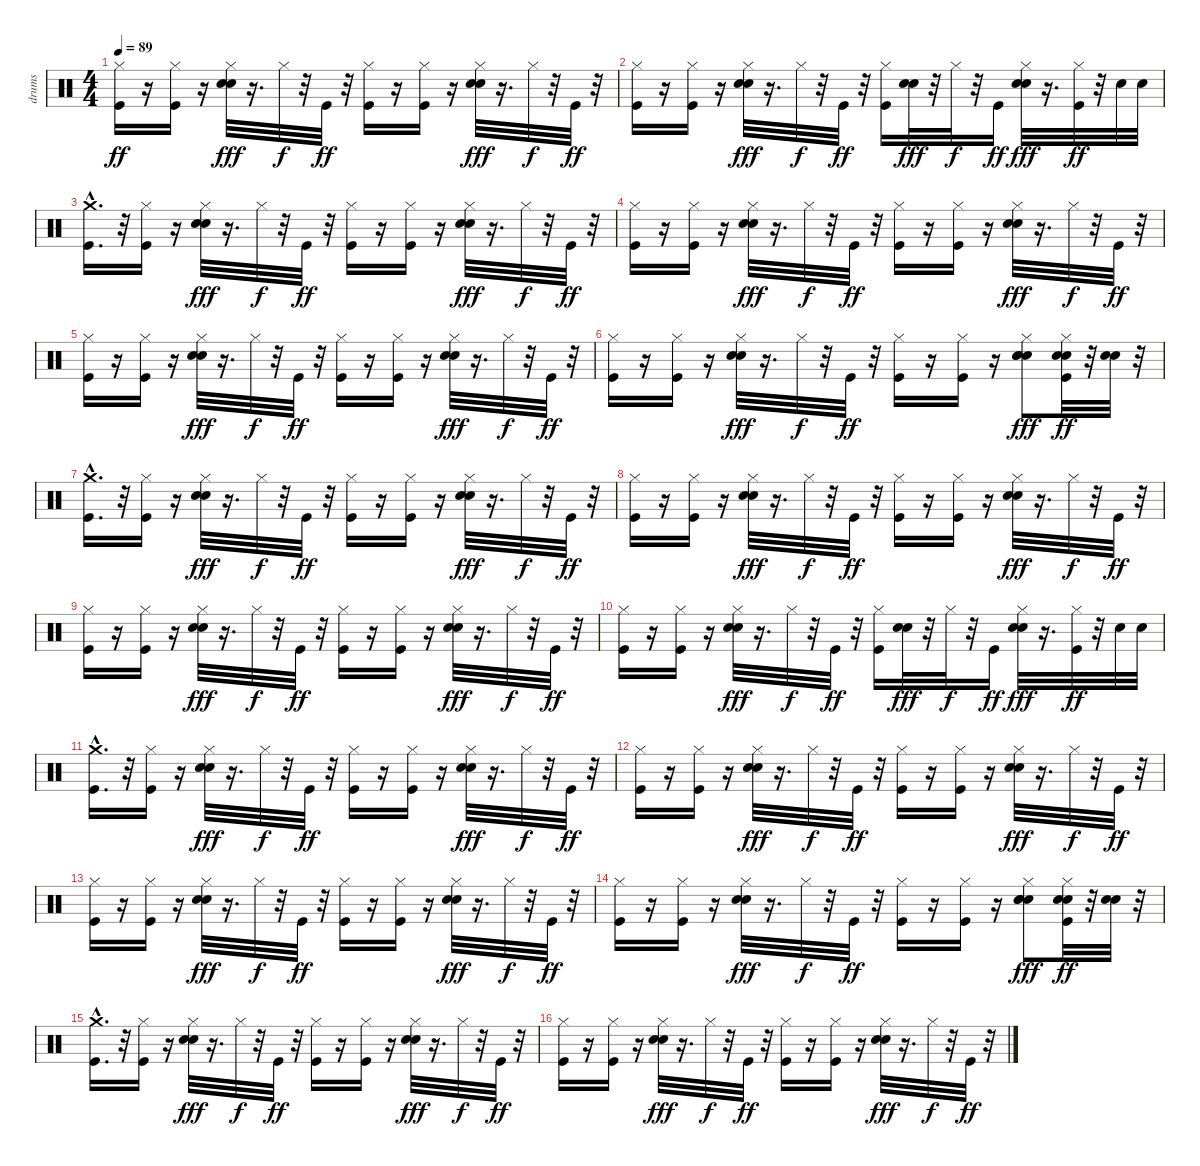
\track ("drums" "drums") {instrument percussion}
\staff {score}
\articulation defaults
\ts (4 4)
\tempo 89
\clef neutral
\ks c
("Kick (hit)" "Hi-Hat (closed)").16{dy ff} r.16 ("Hi-Hat (closed)" "Kick (hit)").16 r.16 ("Hi-Hat (closed)" "Electric Snare (hit)" "Hand Clap (hit)").32{dy fff} r.16{d} "Hi-Hat (closed)".32{dy f} r.32 "Kick (hit)".32{dy ff} r.32 ("Hi-Hat (closed)" "Kick (hit)").16 r.16 ("Hi-Hat (closed)" "Kick (hit)").16 r.16 ("Hi-Hat (closed)" "Electric Snare (hit)" "Hand Clap (hit)").32{dy fff} r.16{d} "Hi-Hat (closed)".32{dy f} r.32 "Kick (hit)".32{dy ff} r.32 |
("Kick (hit)" "Hi-Hat (closed)").16 r.16 ("Hi-Hat (closed)" "Kick (hit)").16 r.16 ("Hi-Hat (closed)" "Electric Snare (hit)" "Hand Clap (hit)").32{dy fff} r.16{d} "Hi-Hat (closed)".32{dy f} r.32 "Kick (hit)".32{dy ff} r.32 ("Hi-Hat (closed)" "Kick (hit)").16 ("Electric Snare (hit)" "Hand Clap (hit)").32{dy fff} r.32 "Hi-Hat (closed)".32{dy f} r.32 "Kick (hit)".16{dy ff} ("Hi-Hat (closed)" "Electric Snare (hit)" "Hand Clap (hit)").32{dy fff} r.16{d} ("Hi-Hat (closed)" "Kick (hit)").32{dy ff} r.32 "Hand Clap (hit)".32 "Hand Clap (hit)".32 |
("Crash medium (hit)"{hac} "Kick (hit)").16{d} r.32 ("Hi-Hat (closed)" "Kick (hit)").16 r.16 ("Hi-Hat (closed)" "Electric Snare (hit)" "Hand Clap (hit)").32{dy fff} r.16{d} "Hi-Hat (closed)".32{dy f} r.32 "Kick (hit)".32{dy ff} r.32 ("Hi-Hat (closed)" "Kick (hit)").16 r.16 ("Hi-Hat (closed)" "Kick (hit)").16 r.16 ("Hi-Hat (closed)" "Electric Snare (hit)" "Hand Clap (hit)").32{dy fff} r.16{d} "Hi-Hat (closed)".32{dy f} r.32 "Kick (hit)".32{dy ff} r.32 |
("Kick (hit)" "Hi-Hat (closed)").16 r.16 ("Hi-Hat (closed)" "Kick (hit)").16 r.16 ("Hi-Hat (closed)" "Electric Snare (hit)" "Hand Clap (hit)").32{dy fff} r.16{d} "Hi-Hat (closed)".32{dy f} r.32 "Kick (hit)".32{dy ff} r.32 ("Hi-Hat (closed)" "Kick (hit)").16 r.16 ("Hi-Hat (closed)" "Kick (hit)").16 r.16 ("Hi-Hat (closed)" "Electric Snare (hit)" "Hand Clap (hit)").32{dy fff} r.16{d} "Hi-Hat (closed)".32{dy f} r.32 "Kick (hit)".32{dy ff} r.32 |
("Kick (hit)" "Hi-Hat (closed)").16 r.16 ("Hi-Hat (closed)" "Kick (hit)").16 r.16 ("Hi-Hat (closed)" "Electric Snare (hit)" "Hand Clap (hit)").32{dy fff} r.16{d} "Hi-Hat (closed)".32{dy f} r.32 "Kick (hit)".32{dy ff} r.32 ("Hi-Hat (closed)" "Kick (hit)").16 r.16 ("Hi-Hat (closed)" "Kick (hit)").16 r.16 ("Hi-Hat (closed)" "Electric Snare (hit)" "Hand Clap (hit)").32{dy fff} r.16{d} "Hi-Hat (closed)".32{dy f} r.32 "Kick (hit)".32{dy ff} r.32 |
("Kick (hit)" "Hi-Hat (closed)").16 r.16 ("Hi-Hat (closed)" "Kick (hit)").16 r.16 ("Hi-Hat (closed)" "Electric Snare (hit)" "Hand Clap (hit)").32{dy fff} r.16{d} "Hi-Hat (closed)".32{dy f} r.32 "Kick (hit)".32{dy ff} r.32 ("Hi-Hat (closed)" "Kick (hit)").16 r.16 ("Hi-Hat (closed)" "Kick (hit)").16 r.16 ("Electric Snare (hit)" "Hi-Hat (closed)" "Hand Clap (hit)" "Electric Snare (hit)").8{dy fff} ("Hi-Hat (closed)" "Kick (hit)" "Hand Clap (hit)" "Electric Snare (hit)").32{dy ff} r.32 ("Hand Clap (hit)" "Electric Snare (hit)").32 r.32 |
("Crash medium (hit)"{hac} "Kick (hit)").16{d} r.32 ("Hi-Hat (closed)" "Kick (hit)").16 r.16 ("Hi-Hat (closed)" "Electric Snare (hit)" "Hand Clap (hit)").32{dy fff} r.16{d} "Hi-Hat (closed)".32{dy f} r.32 "Kick (hit)".32{dy ff} r.32 ("Hi-Hat (closed)" "Kick (hit)").16 r.16 ("Hi-Hat (closed)" "Kick (hit)").16 r.16 ("Hi-Hat (closed)" "Electric Snare (hit)" "Hand Clap (hit)").32{dy fff} r.16{d} "Hi-Hat (closed)".32{dy f} r.32 "Kick (hit)".32{dy ff} r.32 |
("Kick (hit)" "Hi-Hat (closed)").16 r.16 ("Hi-Hat (closed)" "Kick (hit)").16 r.16 ("Hi-Hat (closed)" "Electric Snare (hit)" "Hand Clap (hit)").32{dy fff} r.16{d} "Hi-Hat (closed)".32{dy f} r.32 "Kick (hit)".32{dy ff} r.32 ("Hi-Hat (closed)" "Kick (hit)").16 r.16 ("Hi-Hat (closed)" "Kick (hit)").16 r.16 ("Hi-Hat (closed)" "Electric Snare (hit)" "Hand Clap (hit)").32{dy fff} r.16{d} "Hi-Hat (closed)".32{dy f} r.32 "Kick (hit)".32{dy ff} r.32 |
("Kick (hit)" "Hi-Hat (closed)").16 r.16 ("Hi-Hat (closed)" "Kick (hit)").16 r.16 ("Hi-Hat (closed)" "Electric Snare (hit)" "Hand Clap (hit)").32{dy fff} r.16{d} "Hi-Hat (closed)".32{dy f} r.32 "Kick (hit)".32{dy ff} r.32 ("Hi-Hat (closed)" "Kick (hit)").16 r.16 ("Hi-Hat (closed)" "Kick (hit)").16 r.16 ("Hi-Hat (closed)" "Electric Snare (hit)" "Hand Clap (hit)").32{dy fff} r.16{d} "Hi-Hat (closed)".32{dy f} r.32 "Kick (hit)".32{dy ff} r.32 |
("Kick (hit)" "Hi-Hat (closed)").16 r.16 ("Hi-Hat (closed)" "Kick (hit)").16 r.16 ("Hi-Hat (closed)" "Electric Snare (hit)" "Hand Clap (hit)").32{dy fff} r.16{d} "Hi-Hat (closed)".32{dy f} r.32 "Kick (hit)".32{dy ff} r.32 ("Hi-Hat (closed)" "Kick (hit)").16 ("Electric Snare (hit)" "Hand Clap (hit)").32{dy fff} r.32 "Hi-Hat (closed)".32{dy f} r.32 "Kick (hit)".16{dy ff} ("Hi-Hat (closed)" "Electric Snare (hit)" "Hand Clap (hit)").32{dy fff} r.16{d} ("Hi-Hat (closed)" "Kick (hit)").32{dy ff} r.32 "Hand Clap (hit)".32 "Hand Clap (hit)".32 |
("Crash medium (hit)"{hac} "Kick (hit)").16{d} r.32 ("Hi-Hat (closed)" "Kick (hit)").16 r.16 ("Hi-Hat (closed)" "Electric Snare (hit)" "Hand Clap (hit)").32{dy fff} r.16{d} "Hi-Hat (closed)".32{dy f} r.32 "Kick (hit)".32{dy ff} r.32 ("Hi-Hat (closed)" "Kick (hit)").16 r.16 ("Hi-Hat (closed)" "Kick (hit)").16 r.16 ("Hi-Hat (closed)" "Electric Snare (hit)" "Hand Clap (hit)").32{dy fff} r.16{d} "Hi-Hat (closed)".32{dy f} r.32 "Kick (hit)".32{dy ff} r.32 |
("Kick (hit)" "Hi-Hat (closed)").16 r.16 ("Hi-Hat (closed)" "Kick (hit)").16 r.16 ("Hi-Hat (closed)" "Electric Snare (hit)" "Hand Clap (hit)").32{dy fff} r.16{d} "Hi-Hat (closed)".32{dy f} r.32 "Kick (hit)".32{dy ff} r.32 ("Hi-Hat (closed)" "Kick (hit)").16 r.16 ("Hi-Hat (closed)" "Kick (hit)").16 r.16 ("Hi-Hat (closed)" "Electric Snare (hit)" "Hand Clap (hit)").32{dy fff} r.16{d} "Hi-Hat (closed)".32{dy f} r.32 "Kick (hit)".32{dy ff} r.32 |
("Kick (hit)" "Hi-Hat (closed)").16 r.16 ("Hi-Hat (closed)" "Kick (hit)").16 r.16 ("Hi-Hat (closed)" "Electric Snare (hit)" "Hand Clap (hit)").32{dy fff} r.16{d} "Hi-Hat (closed)".32{dy f} r.32 "Kick (hit)".32{dy ff} r.32 ("Hi-Hat (closed)" "Kick (hit)").16 r.16 ("Hi-Hat (closed)" "Kick (hit)").16 r.16 ("Hi-Hat (closed)" "Electric Snare (hit)" "Hand Clap (hit)").32{dy fff} r.16{d} "Hi-Hat (closed)".32{dy f} r.32 "Kick (hit)".32{dy ff} r.32 |
("Kick (hit)" "Hi-Hat (closed)").16 r.16 ("Hi-Hat (closed)" "Kick (hit)").16 r.16 ("Hi-Hat (closed)" "Electric Snare (hit)" "Hand Clap (hit)").32{dy fff} r.16{d} "Hi-Hat (closed)".32{dy f} r.32 "Kick (hit)".32{dy ff} r.32 ("Hi-Hat (closed)" "Kick (hit)").16 r.16 ("Hi-Hat (closed)" "Kick (hit)").16 r.16 ("Electric Snare (hit)" "Hi-Hat (closed)" "Hand Clap (hit)" "Electric Snare (hit)").8{dy fff} ("Hi-Hat (closed)" "Kick (hit)" "Hand Clap (hit)" "Electric Snare (hit)").32{dy ff} r.32 ("Hand Clap (hit)" "Electric Snare (hit)").32 r.32 |
("Crash medium (hit)"{hac} "Kick (hit)").16{d} r.32 ("Hi-Hat (closed)" "Kick (hit)").16 r.16 ("Hi-Hat (closed)" "Electric Snare (hit)" "Hand Clap (hit)").32{dy fff} r.16{d} "Hi-Hat (closed)".32{dy f} r.32 "Kick (hit)".32{dy ff} r.32 ("Hi-Hat (closed)" "Kick (hit)").16 r.16 ("Hi-Hat (closed)" "Kick (hit)").16 r.16 ("Hi-Hat (closed)" "Electric Snare (hit)" "Hand Clap (hit)").32{dy fff} r.16{d} "Hi-Hat (closed)".32{dy f} r.32 "Kick (hit)".32{dy ff} r.32 |
("Kick (hit)" "Hi-Hat (closed)").16 r.16 ("Hi-Hat (closed)" "Kick (hit)").16 r.16 ("Hi-Hat (closed)" "Electric Snare (hit)" "Hand Clap (hit)").32{dy fff} r.16{d} "Hi-Hat (closed)".32{dy f} r.32 "Kick (hit)".32{dy ff} r.32 ("Hi-Hat (closed)" "Kick (hit)").16 r.16 ("Hi-Hat (closed)" "Kick (hit)").16 r.16 ("Hi-Hat (closed)" "Electric Snare (hit)" "Hand Clap (hit)").32{dy fff} r.16{d} "Hi-Hat (closed)".32{dy f} r.32 "Kick (hit)".32{dy ff} r.32
